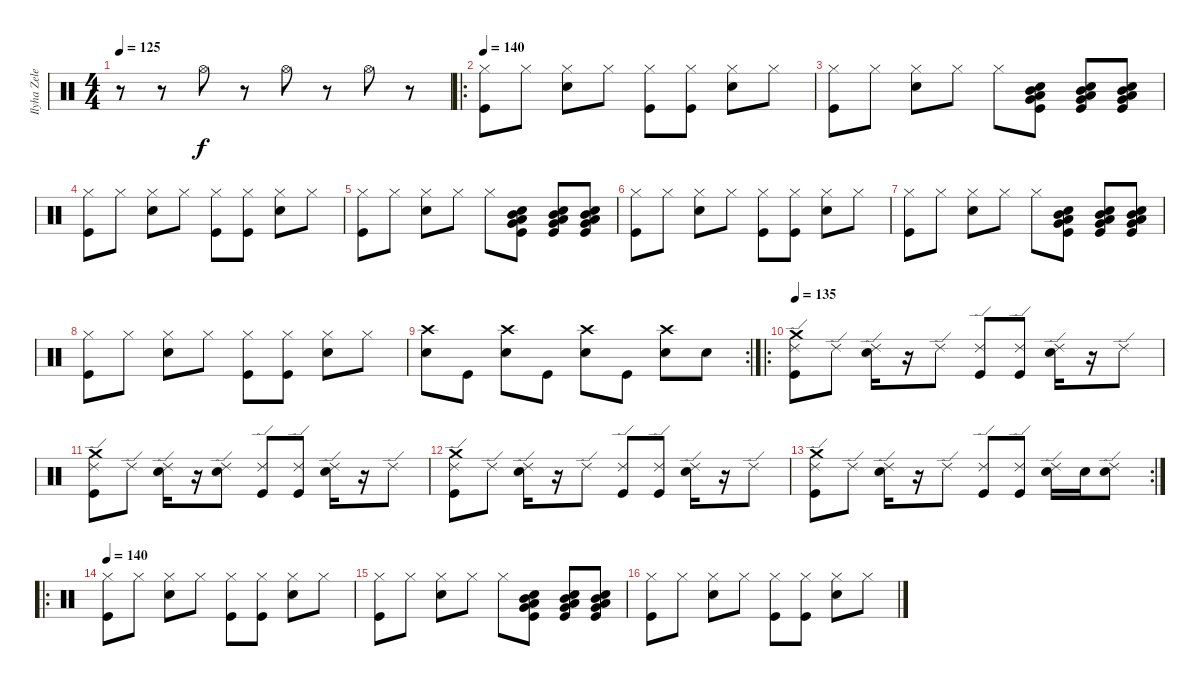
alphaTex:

\track ("Ilyha Zelenyi (DRUMS)" "Ilyha Zele") {instrument percussion}
\staff {score}
\articulation defaults
\ts (4 4)
\tempo 125
\clef neutral
\ks c
r.8{dy f} r.8 "Hi-Hat (open)".8 r.8 "Hi-Hat (open)".8 r.8 "Hi-Hat (open)".8 r.8 |
\ro
\tempo 140
("Hi-Hat (closed)" "Kick (hit)").8 "Hi-Hat (closed)".8 ("Hi-Hat (closed)" "Electric Snare (hit)").8 "Hi-Hat (closed)".8 ("Hi-Hat (closed)" "Kick (hit)").8 ("Hi-Hat (closed)" "Kick (hit)").8 ("Hi-Hat (closed)" "Electric Snare (hit)").8 "Hi-Hat (closed)".8 |
("Hi-Hat (closed)" "Kick (hit)").8 "Hi-Hat (closed)".8 ("Hi-Hat (closed)" "Electric Snare (hit)").8 "Hi-Hat (closed)".8 "Hi-Hat (closed)".8 ("Electric Snare (hit)" "Mid Tom (hit)" "Very Low Tom (hit)" "Low Floor Tom (hit)" "Kick (hit)").8 ("Electric Snare (hit)" "Mid Tom (hit)" "Very Low Tom (hit)" "Low Floor Tom (hit)" "Kick (hit)").8 ("Electric Snare (hit)" "Mid Tom (hit)" "Very Low Tom (hit)" "Low Floor Tom (hit)" "Kick (hit)").8 |
("Hi-Hat (closed)" "Kick (hit)").8 "Hi-Hat (closed)".8 ("Hi-Hat (closed)" "Electric Snare (hit)").8 "Hi-Hat (closed)".8 ("Hi-Hat (closed)" "Kick (hit)").8 ("Hi-Hat (closed)" "Kick (hit)").8 ("Hi-Hat (closed)" "Electric Snare (hit)").8 "Hi-Hat (closed)".8 |
("Hi-Hat (closed)" "Kick (hit)").8 "Hi-Hat (closed)".8 ("Hi-Hat (closed)" "Electric Snare (hit)").8 "Hi-Hat (closed)".8 "Hi-Hat (closed)".8 ("Electric Snare (hit)" "Mid Tom (hit)" "Very Low Tom (hit)" "Low Floor Tom (hit)" "Kick (hit)").8 ("Electric Snare (hit)" "Mid Tom (hit)" "Very Low Tom (hit)" "Low Floor Tom (hit)" "Kick (hit)").8 ("Electric Snare (hit)" "Mid Tom (hit)" "Very Low Tom (hit)" "Low Floor Tom (hit)" "Kick (hit)").8 |
("Hi-Hat (closed)" "Kick (hit)").8 "Hi-Hat (closed)".8 ("Hi-Hat (closed)" "Electric Snare (hit)").8 "Hi-Hat (closed)".8 ("Hi-Hat (closed)" "Kick (hit)").8 ("Hi-Hat (closed)" "Kick (hit)").8 ("Hi-Hat (closed)" "Electric Snare (hit)").8 "Hi-Hat (closed)".8 |
("Hi-Hat (closed)" "Kick (hit)").8 "Hi-Hat (closed)".8 ("Hi-Hat (closed)" "Electric Snare (hit)").8 "Hi-Hat (closed)".8 "Hi-Hat (closed)".8 ("Electric Snare (hit)" "Mid Tom (hit)" "Very Low Tom (hit)" "Low Floor Tom (hit)" "Kick (hit)").8 ("Electric Snare (hit)" "Mid Tom (hit)" "Very Low Tom (hit)" "Low Floor Tom (hit)" "Kick (hit)").8 ("Electric Snare (hit)" "Mid Tom (hit)" "Very Low Tom (hit)" "Low Floor Tom (hit)" "Kick (hit)").8 |
("Hi-Hat (closed)" "Kick (hit)").8 "Hi-Hat (closed)".8 ("Hi-Hat (closed)" "Electric Snare (hit)").8 "Hi-Hat (closed)".8 ("Hi-Hat (closed)" "Kick (hit)").8 ("Hi-Hat (closed)" "Kick (hit)").8 ("Hi-Hat (closed)" "Electric Snare (hit)").8 "Hi-Hat (closed)".8 |
\rc 2
("Crash high (hit)" "Electric Snare (hit)").8 "Kick (hit)".8 ("Crash high (hit)" "Electric Snare (hit)").8 "Kick (hit)".8 ("Crash high (hit)" "Electric Snare (hit)").8 "Kick (hit)".8 ("Crash high (hit)" "Electric Snare (hit)").8 "Electric Snare (hit)".8 |
\ro
\tempo 135
("Ride (edge) 2" "Crash medium (hit)" "Kick (hit)").8 "Ride (edge) 2".8 ("Ride (edge) 2" "Electric Snare (hit)").16 r.16 "Ride (edge) 2".8 ("Ride (edge) 2" "Kick (hit)").8 ("Ride (edge) 2" "Kick (hit)").8 ("Ride (edge) 2" "Electric Snare (hit)").16 r.16 "Ride (edge) 2".8 |
("Ride (edge) 2" "Crash medium (hit)" "Kick (hit)").8 "Ride (edge) 2".8 ("Ride (edge) 2" "Electric Snare (hit)").16 r.16 ("Ride (edge) 2" "Snare (hit)").8 ("Ride (edge) 2" "Kick (hit)").8 ("Ride (edge) 2" "Kick (hit)").8 ("Ride (edge) 2" "Electric Snare (hit)").16 r.16 "Ride (edge) 2".8 |
("Ride (edge) 2" "Crash medium (hit)" "Kick (hit)").8 "Ride (edge) 2".8 ("Ride (edge) 2" "Electric Snare (hit)").16 r.16 "Ride (edge) 2".8 ("Ride (edge) 2" "Kick (hit)").8 ("Ride (edge) 2" "Kick (hit)").8 ("Ride (edge) 2" "Electric Snare (hit)").16 r.16 "Ride (edge) 2".8 |
\rc 2
("Ride (edge) 2" "Crash medium (hit)" "Kick (hit)").8 "Ride (edge) 2".8 ("Ride (edge) 2" "Electric Snare (hit)").16 r.16 "Ride (edge) 2".8 ("Ride (edge) 2" "Kick (hit)").8 ("Ride (edge) 2" "Kick (hit)").8 ("Ride (edge) 2" "Electric Snare (hit)").16 "Electric Snare (hit)".16 ("Ride (edge) 2" "Electric Snare (hit)").8 |
\ro
\tempo 140
("Hi-Hat (closed)" "Kick (hit)").8 "Hi-Hat (closed)".8 ("Hi-Hat (closed)" "Electric Snare (hit)").8 "Hi-Hat (closed)".8 ("Hi-Hat (closed)" "Kick (hit)").8 ("Hi-Hat (closed)" "Kick (hit)").8 ("Hi-Hat (closed)" "Electric Snare (hit)").8 "Hi-Hat (closed)".8 |
("Hi-Hat (closed)" "Kick (hit)").8 "Hi-Hat (closed)".8 ("Hi-Hat (closed)" "Electric Snare (hit)").8 "Hi-Hat (closed)".8 "Hi-Hat (closed)".8 ("Electric Snare (hit)" "Mid Tom (hit)" "Very Low Tom (hit)" "Low Floor Tom (hit)" "Kick (hit)").8 ("Electric Snare (hit)" "Mid Tom (hit)" "Very Low Tom (hit)" "Low Floor Tom (hit)" "Kick (hit)").8 ("Electric Snare (hit)" "Mid Tom (hit)" "Very Low Tom (hit)" "Low Floor Tom (hit)" "Kick (hit)").8 |
("Hi-Hat (closed)" "Kick (hit)").8 "Hi-Hat (closed)".8 ("Hi-Hat (closed)" "Electric Snare (hit)").8 "Hi-Hat (closed)".8 ("Hi-Hat (closed)" "Kick (hit)").8 ("Hi-Hat (closed)" "Kick (hit)").8 ("Hi-Hat (closed)" "Electric Snare (hit)").8 "Hi-Hat (closed)".8
